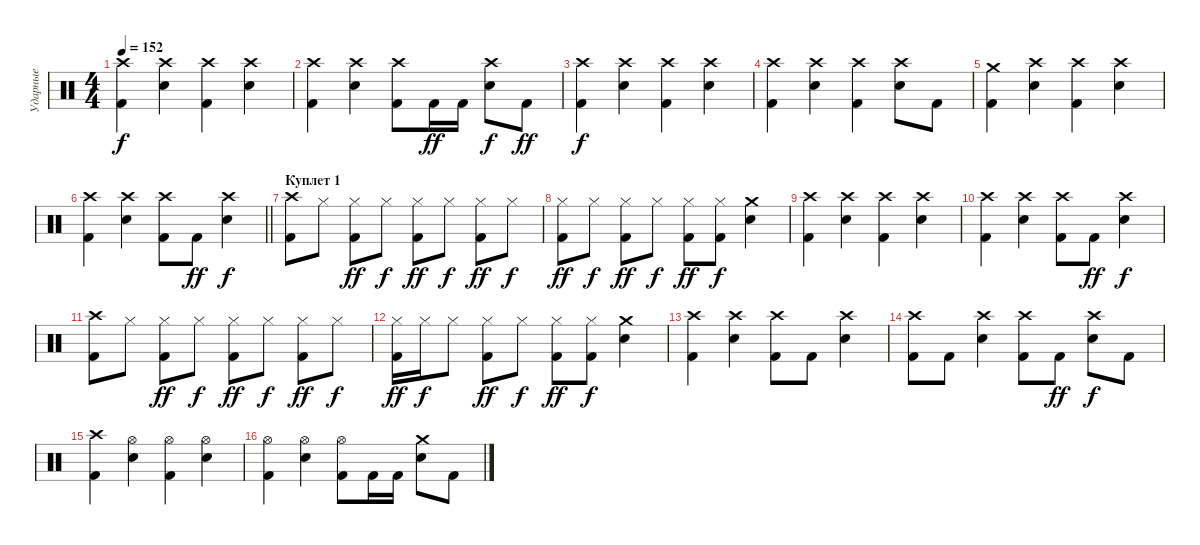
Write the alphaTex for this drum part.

\track ("Ударные" "Ударные") {instrument percussion}
\staff {score}
\articulation defaults
\ts (4 4)
\tempo 152
\clef neutral
\ks c
("Crash high (hit)" "Kick (hit) 2").4{dy f} ("Crash high (hit)" "Snare (hit) 2").4 ("Crash high (hit)" "Kick (hit) 2").4 ("Crash high (hit)" "Snare (hit) 2").4 |
("Crash high (hit)" "Kick (hit) 2").4 ("Crash high (hit)" "Snare (hit) 2").4 ("Crash high (hit)" "Kick (hit) 2").8 "Kick (hit) 2".16{dy ff} "Kick (hit) 2".16 ("Crash high (hit)" "Snare (hit) 2").8{dy f} "Kick (hit) 2".8{dy ff} |
("Crash high (hit)" "Kick (hit) 2").4{dy f} ("Crash high (hit)" "Snare (hit) 2").4 ("Crash high (hit)" "Kick (hit) 2").4 ("Crash high (hit)" "Snare (hit) 2").4 |
("Crash high (hit)" "Kick (hit) 2").4 ("Crash high (hit)" "Snare (hit) 2").4 ("Crash high (hit)" "Kick (hit) 2").4 ("Crash high (hit)" "Snare (hit) 2").8 "Kick (hit) 2".8 |
("Crash medium (hit)" "Kick (hit) 2").4 ("Crash high (hit)" "Snare (hit) 2").4 ("Crash high (hit)" "Kick (hit) 2").4 ("Crash high (hit)" "Snare (hit) 2").4 |
\barLineRight lightlight
("Crash high (hit)" "Kick (hit) 2").4 ("Crash high (hit)" "Snare (hit) 2").4 ("Crash high (hit)" "Kick (hit) 2").8 "Kick (hit) 2".8{dy ff} ("Crash high (hit)" "Snare (hit) 2").4{dy f} |
\section ("" "Куплет 1")
("Crash high (hit)" "Kick (hit) 2").8 "Hi-Hat (closed)".8 ("Hi-Hat (closed)" "Kick (hit) 2").8{dy ff} "Hi-Hat (closed)".8{dy f} ("Hi-Hat (closed)" "Kick (hit) 2").8{dy ff} "Hi-Hat (closed)".8{dy f} ("Hi-Hat (closed)" "Kick (hit) 2").8{dy ff} "Hi-Hat (closed)".8{dy f} |
("Hi-Hat (closed)" "Kick (hit) 2").8{dy ff} "Hi-Hat (closed)".8{dy f} ("Hi-Hat (closed)" "Kick (hit) 2").8{dy ff} "Hi-Hat (closed)".8{dy f} ("Hi-Hat (closed)" "Kick (hit) 2").8{dy ff} ("Hi-Hat (closed)" "Kick (hit) 2").8{dy f} ("Crash medium (hit)" "Snare (hit) 2").4 |
("Crash high (hit)" "Kick (hit) 2").4 ("Crash high (hit)" "Snare (hit) 2").4 ("Crash high (hit)" "Kick (hit) 2").4 ("Crash high (hit)" "Snare (hit) 2").4 |
("Crash high (hit)" "Kick (hit) 2").4 ("Crash high (hit)" "Snare (hit) 2").4 ("Crash high (hit)" "Kick (hit) 2").8 "Kick (hit) 2".8{dy ff} ("Crash high (hit)" "Snare (hit) 2").4{dy f} |
("Crash high (hit)" "Kick (hit) 2").8 "Hi-Hat (closed)".8 ("Hi-Hat (closed)" "Kick (hit) 2").8{dy ff} "Hi-Hat (closed)".8{dy f} ("Hi-Hat (closed)" "Kick (hit) 2").8{dy ff} "Hi-Hat (closed)".8{dy f} ("Hi-Hat (closed)" "Kick (hit) 2").8{dy ff} "Hi-Hat (closed)".8{dy f} |
("Hi-Hat (closed)" "Kick (hit) 2").16{dy ff} "Hi-Hat (closed)".16{dy f} "Hi-Hat (closed)".8 ("Hi-Hat (closed)" "Kick (hit) 2").8{dy ff} "Hi-Hat (closed)".8{dy f} ("Hi-Hat (closed)" "Kick (hit) 2").8{dy ff} ("Hi-Hat (closed)" "Kick (hit) 2").8{dy f} ("Crash medium (hit)" "Snare (hit) 2").4 |
("Crash high (hit)" "Kick (hit) 2").4 ("Crash high (hit)" "Snare (hit) 2").4 ("Crash high (hit)" "Kick (hit) 2").8 "Kick (hit) 2".8 ("Crash high (hit)" "Snare (hit) 2").4 |
("Crash high (hit)" "Kick (hit) 2").8 "Kick (hit) 2".8 ("Crash high (hit)" "Snare (hit) 2").4 ("Crash high (hit)" "Kick (hit) 2").8 "Kick (hit) 2".8{dy ff} ("Crash high (hit)" "Snare (hit) 2").8{dy f} "Kick (hit) 2".8 |
("Crash high (hit)" "Kick (hit) 2").4 ("Hi-Hat (open)" "Snare (hit) 2").4 ("Hi-Hat (open)" "Kick (hit) 2").4 ("Hi-Hat (open)" "Snare (hit) 2").4 |
("Hi-Hat (open)" "Kick (hit) 2").4 ("Hi-Hat (open)" "Snare (hit) 2").4 ("Hi-Hat (open)" "Kick (hit) 2").8 "Kick (hit) 2".16 "Kick (hit) 2".16 ("Crash medium (hit)" "Snare (hit) 2").8 "Kick (hit) 2".8
